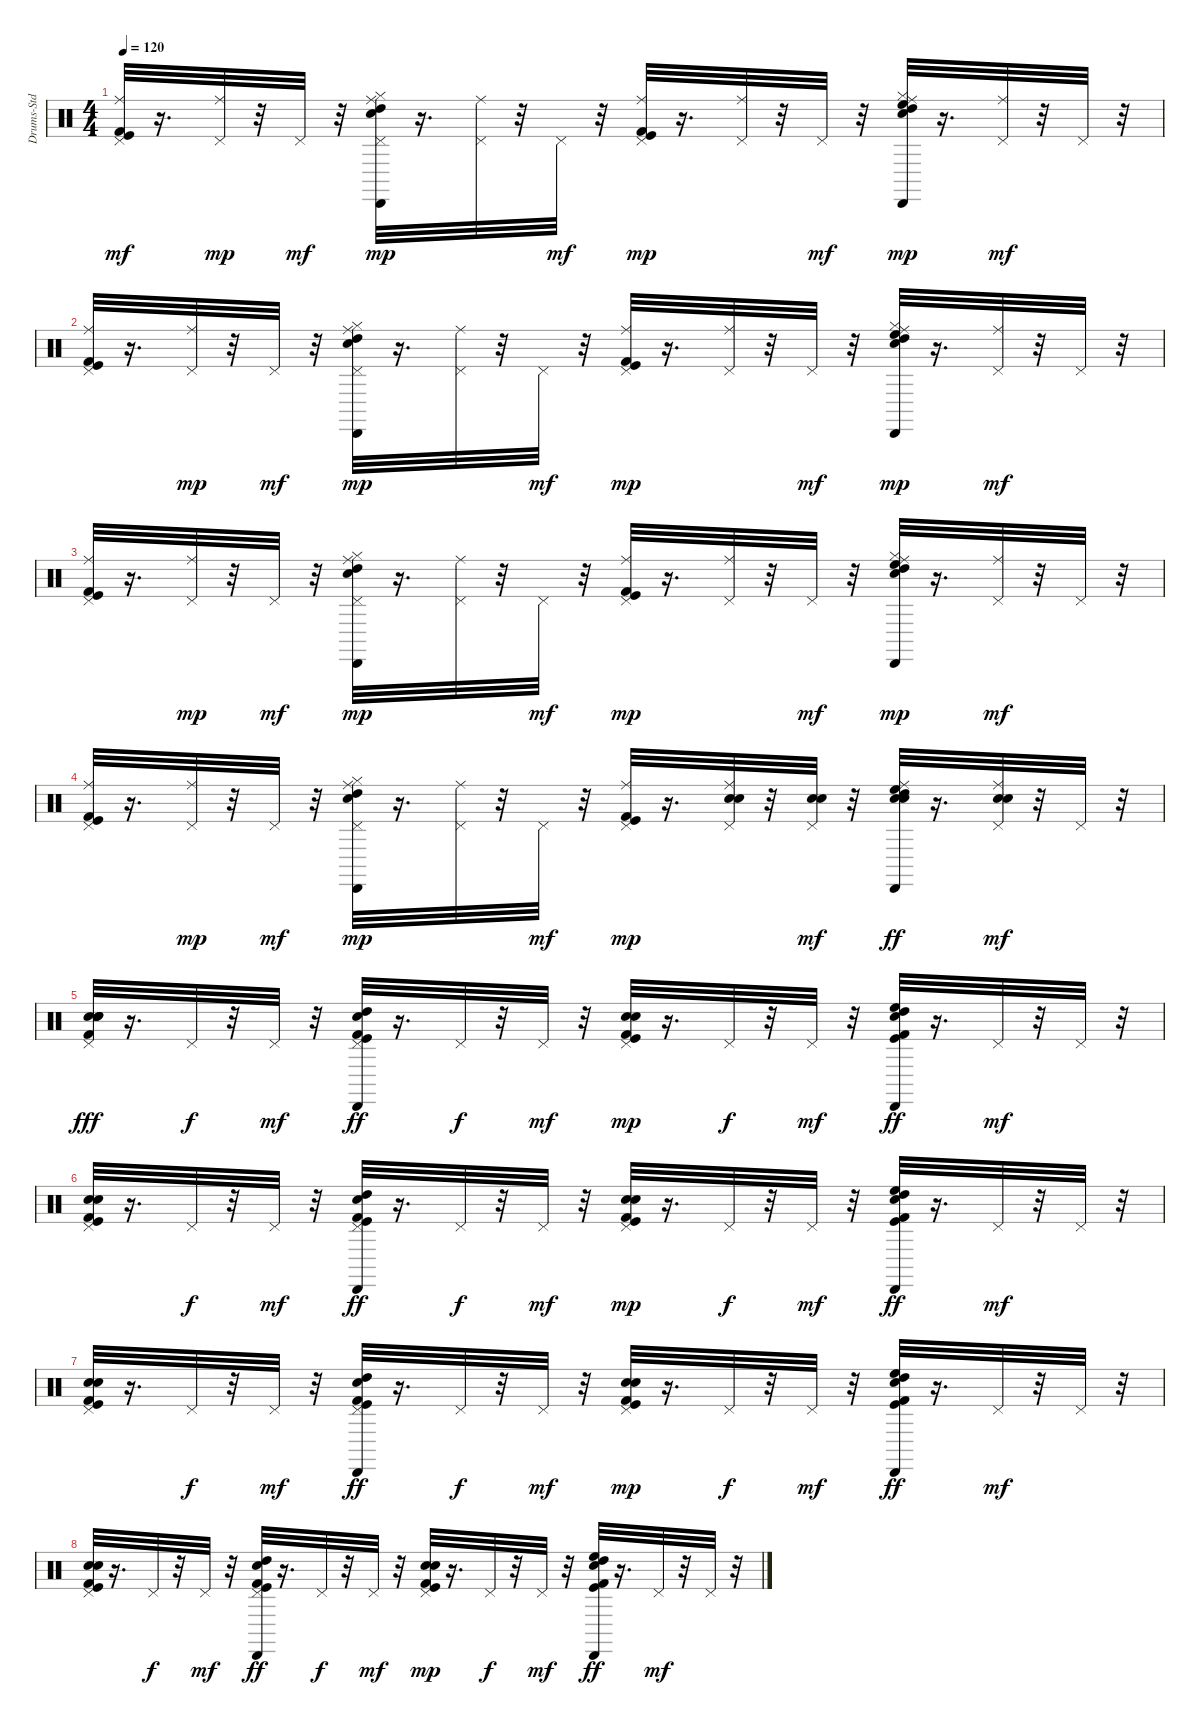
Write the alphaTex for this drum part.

\track ("Drums-Std" "Drums-Std") {instrument percussion}
\staff {score}
\articulation defaults
\ts (4 4)
\tempo 120
\clef neutral
\ks c
("Ride (middle)" "Pedal Hi-Hat (hit)" "Kick (hit) 2" "Kick (hit)").32{dy mf} r.16{d} ("Ride (middle)" "Pedal Hi-Hat (hit)").32{dy mp} r.32 "Pedal Hi-Hat (hit)".32{dy mf} r.32 ("Snare (hit) 2" "High Tom (hit)" "Ride (middle)" "Cabasa (hit)" "Hi-Hat (closed)" "Pedal Hi-Hat (hit)").32{dy mp} r.16{d} ("Ride (middle)" "Pedal Hi-Hat (hit)").32 r.32 "Pedal Hi-Hat (hit)".32{dy mf} r.32 ("Ride (middle)" "Pedal Hi-Hat (hit)" "Kick (hit) 2" "Kick (hit)").32{dy mp} r.16{d} ("Ride (middle)" "Pedal Hi-Hat (hit)").32 r.32 "Pedal Hi-Hat (hit)".32{dy mf} r.32 ("Snare (hit) 2" "High Floor Tom (hit)" "High Tom (hit)" "Ride (middle)" "Cabasa (hit)" "Hi-Hat (closed)").32{dy mp} r.16{d} ("Ride (middle)" "Pedal Hi-Hat (hit)").32{dy mf} r.32 "Pedal Hi-Hat (hit)".32 r.32 |
("Ride (middle)" "Pedal Hi-Hat (hit)" "Kick (hit) 2" "Kick (hit)").32 r.16{d} ("Ride (middle)" "Pedal Hi-Hat (hit)").32{dy mp} r.32 "Pedal Hi-Hat (hit)".32{dy mf} r.32 ("Snare (hit) 2" "High Tom (hit)" "Ride (middle)" "Cabasa (hit)" "Hi-Hat (closed)" "Pedal Hi-Hat (hit)").32{dy mp} r.16{d} ("Ride (middle)" "Pedal Hi-Hat (hit)").32 r.32 "Pedal Hi-Hat (hit)".32{dy mf} r.32 ("Ride (middle)" "Pedal Hi-Hat (hit)" "Kick (hit) 2" "Kick (hit)").32{dy mp} r.16{d} ("Ride (middle)" "Pedal Hi-Hat (hit)").32 r.32 "Pedal Hi-Hat (hit)".32{dy mf} r.32 ("Snare (hit) 2" "High Floor Tom (hit)" "High Tom (hit)" "Ride (middle)" "Cabasa (hit)" "Hi-Hat (closed)").32{dy mp} r.16{d} ("Ride (middle)" "Pedal Hi-Hat (hit)").32{dy mf} r.32 "Pedal Hi-Hat (hit)".32 r.32 |
("Ride (middle)" "Pedal Hi-Hat (hit)" "Kick (hit) 2" "Kick (hit)").32 r.16{d} ("Ride (middle)" "Pedal Hi-Hat (hit)").32{dy mp} r.32 "Pedal Hi-Hat (hit)".32{dy mf} r.32 ("Snare (hit) 2" "High Tom (hit)" "Ride (middle)" "Cabasa (hit)" "Hi-Hat (closed)" "Pedal Hi-Hat (hit)").32{dy mp} r.16{d} ("Ride (middle)" "Pedal Hi-Hat (hit)").32 r.32 "Pedal Hi-Hat (hit)".32{dy mf} r.32 ("Ride (middle)" "Pedal Hi-Hat (hit)" "Kick (hit) 2" "Kick (hit)").32{dy mp} r.16{d} ("Ride (middle)" "Pedal Hi-Hat (hit)").32 r.32 "Pedal Hi-Hat (hit)".32{dy mf} r.32 ("Snare (hit) 2" "High Floor Tom (hit)" "High Tom (hit)" "Ride (middle)" "Cabasa (hit)" "Hi-Hat (closed)").32{dy mp} r.16{d} ("Ride (middle)" "Pedal Hi-Hat (hit)").32{dy mf} r.32 "Pedal Hi-Hat (hit)".32 r.32 |
("Ride (middle)" "Pedal Hi-Hat (hit)" "Kick (hit) 2" "Kick (hit)").32 r.16{d} ("Ride (middle)" "Pedal Hi-Hat (hit)").32{dy mp} r.32 "Pedal Hi-Hat (hit)".32{dy mf} r.32 ("Snare (hit) 2" "High Tom (hit)" "Ride (middle)" "Cabasa (hit)" "Hi-Hat (closed)" "Pedal Hi-Hat (hit)").32{dy mp} r.16{d} ("Ride (middle)" "Pedal Hi-Hat (hit)").32 r.32 "Pedal Hi-Hat (hit)".32{dy mf} r.32 ("Ride (middle)" "Pedal Hi-Hat (hit)" "Kick (hit) 2" "Kick (hit)").32{dy mp} r.16{d} ("Snare (hit) 2" "Electric Snare (hit)" "Ride (middle)" "Pedal Hi-Hat (hit)").32 r.32 ("Snare (hit) 2" "Electric Snare (hit)" "Pedal Hi-Hat (hit)").32{dy mf} r.32 ("Electric Snare (hit)" "Snare (hit) 2" "High Floor Tom (hit)" "High Tom (hit)" "Ride (middle)" "Cabasa (hit)").32{dy ff} r.16{d} ("Snare (hit) 2" "Electric Snare (hit)" "Ride (middle)" "Pedal Hi-Hat (hit)").32{dy mf} r.32 "Pedal Hi-Hat (hit)".32 r.32 |
("Snare (hit) 2" "Electric Snare (hit)" "Snare (hit) 2" "Electric Snare (hit)" "Pedal Hi-Hat (hit)" "Kick (hit) 2").32{dy fff} r.16{d} "Pedal Hi-Hat (hit)".32{dy f} r.32 "Pedal Hi-Hat (hit)".32{dy mf volume 11} r.32 ("Kick (hit) 2" "Kick (hit)" "Snare (hit) 2" "High Tom (hit)" "Cabasa (hit)" "Pedal Hi-Hat (hit)").32{dy ff} r.16{d} "Pedal Hi-Hat (hit)".32{dy f volume 11} r.32 "Pedal Hi-Hat (hit)".32{dy mf} r.32 ("Electric Snare (hit)" "Snare (hit) 2" "Pedal Hi-Hat (hit)" "Kick (hit) 2" "Kick (hit)").32{dy mp volume 10} r.16{d} "Pedal Hi-Hat (hit)".32{dy f volume 10} r.32 "Pedal Hi-Hat (hit)".32{dy mf} r.32 ("Kick (hit) 2" "Kick (hit)" "Snare (hit) 2" "High Floor Tom (hit)" "High Tom (hit)" "Cabasa (hit)").32{dy ff} r.16{d} "Pedal Hi-Hat (hit)".32{dy mf volume 10} r.32 "Pedal Hi-Hat (hit)".32 r.32 |
("Snare (hit) 2" "Electric Snare (hit)" "Pedal Hi-Hat (hit)" "Kick (hit) 2" "Kick (hit)").32{volume 10} r.16{d} "Pedal Hi-Hat (hit)".32{dy f volume 10} r.32 "Pedal Hi-Hat (hit)".32{dy mf} r.32 ("Kick (hit) 2" "Kick (hit)" "Snare (hit) 2" "High Tom (hit)" "Cabasa (hit)" "Pedal Hi-Hat (hit)").32{dy ff volume 9} r.16{d} "Pedal Hi-Hat (hit)".32{dy f} r.32 "Pedal Hi-Hat (hit)".32{dy mf volume 9} r.32 ("Electric Snare (hit)" "Snare (hit) 2" "Pedal Hi-Hat (hit)" "Kick (hit) 2" "Kick (hit)").32{dy mp} r.16{d} "Pedal Hi-Hat (hit)".32{dy f} r.32 "Pedal Hi-Hat (hit)".32{dy mf volume 9} r.32 ("Kick (hit) 2" "Kick (hit)" "Snare (hit) 2" "High Floor Tom (hit)" "High Tom (hit)" "Cabasa (hit)").32{dy ff volume 9} r.16{d} "Pedal Hi-Hat (hit)".32{dy mf volume 9} r.32 "Pedal Hi-Hat (hit)".32 r.32 |
("Snare (hit) 2" "Electric Snare (hit)" "Pedal Hi-Hat (hit)" "Kick (hit) 2" "Kick (hit)").32 r.16{d} "Pedal Hi-Hat (hit)".32{dy f volume 9} r.32 "Pedal Hi-Hat (hit)".32{dy mf volume 8} r.32 ("Kick (hit) 2" "Kick (hit)" "Snare (hit) 2" "High Tom (hit)" "Cabasa (hit)" "Pedal Hi-Hat (hit)").32{dy ff} r.16{d} "Pedal Hi-Hat (hit)".32{dy f volume 8} r.32 "Pedal Hi-Hat (hit)".32{dy mf volume 8} r.32 ("Electric Snare (hit)" "Snare (hit) 2" "Pedal Hi-Hat (hit)" "Kick (hit) 2" "Kick (hit)").32{dy mp} r.16{d} "Pedal Hi-Hat (hit)".32{dy f volume 8} r.32 "Pedal Hi-Hat (hit)".32{dy mf volume 8} r.32 ("Kick (hit) 2" "Kick (hit)" "Snare (hit) 2" "High Floor Tom (hit)" "High Tom (hit)" "Cabasa (hit)").32{dy ff} r.16{d} "Pedal Hi-Hat (hit)".32{dy mf volume 8} r.32 "Pedal Hi-Hat (hit)".32 r.32 |
("Snare (hit) 2" "Electric Snare (hit)" "Pedal Hi-Hat (hit)" "Kick (hit) 2" "Kick (hit)").32 r.16{d} "Pedal Hi-Hat (hit)".32{dy f} r.32 "Pedal Hi-Hat (hit)".32{dy mf} r.32 ("Kick (hit) 2" "Kick (hit)" "Snare (hit) 2" "High Tom (hit)" "Cabasa (hit)" "Pedal Hi-Hat (hit)").32{dy ff volume 8} r.16{d} "Pedal Hi-Hat (hit)".32{dy f volume 7} r.32 "Pedal Hi-Hat (hit)".32{dy mf} r.32 ("Electric Snare (hit)" "Snare (hit) 2" "Pedal Hi-Hat (hit)" "Kick (hit) 2" "Kick (hit)").32{dy mp} r.16{d} "Pedal Hi-Hat (hit)".32{dy f volume 7} r.32 "Pedal Hi-Hat (hit)".32{dy mf} r.32 ("Kick (hit) 2" "Kick (hit)" "Snare (hit) 2" "High Floor Tom (hit)" "High Tom (hit)" "Cabasa (hit)").32{dy ff} r.16{d} "Pedal Hi-Hat (hit)".32{dy mf volume 7} r.32 "Pedal Hi-Hat (hit)".32{volume 7} r.32
